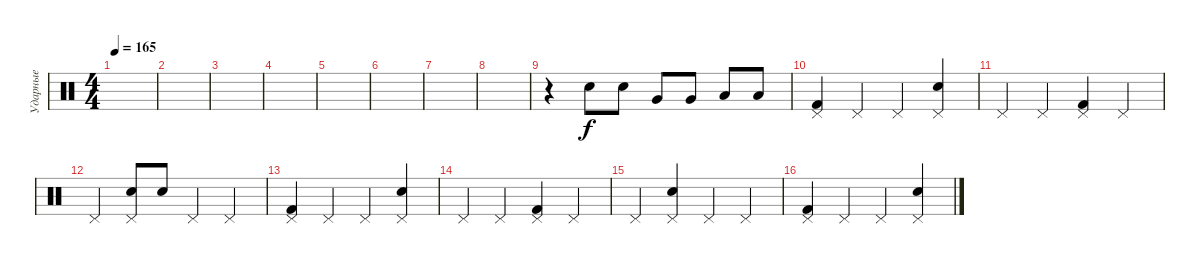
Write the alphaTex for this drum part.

\track ("Ударные" "Ударные") {instrument percussion}
\staff {score}
\articulation defaults
\ts (4 4)
\tempo 165
\clef neutral
\ks c
|
|
|
|
|
|
|
|
r.4 "Snare (hit) 2".8 "Snare (hit) 2".8 "Very Low Tom (hit)".8 "Very Low Tom (hit)".8 "Low Floor Tom (hit)".8 "Low Floor Tom (hit)".8 |
("Pedal Hi-Hat (hit)" "Kick (hit) 2").4 "Pedal Hi-Hat (hit)".4 "Pedal Hi-Hat (hit)".4 ("Pedal Hi-Hat (hit)" "Snare (hit) 2").4 |
"Pedal Hi-Hat (hit)".4 "Pedal Hi-Hat (hit)".4 ("Pedal Hi-Hat (hit)" "Kick (hit) 2").4 "Pedal Hi-Hat (hit)".4 |
"Pedal Hi-Hat (hit)".4 ("Pedal Hi-Hat (hit)" "Snare (hit) 2").8 "Snare (hit) 2".8 "Pedal Hi-Hat (hit)".4 "Pedal Hi-Hat (hit)".4 |
("Pedal Hi-Hat (hit)" "Kick (hit) 2").4 "Pedal Hi-Hat (hit)".4 "Pedal Hi-Hat (hit)".4 ("Pedal Hi-Hat (hit)" "Snare (hit) 2").4 |
"Pedal Hi-Hat (hit)".4 "Pedal Hi-Hat (hit)".4 ("Pedal Hi-Hat (hit)" "Kick (hit) 2").4 "Pedal Hi-Hat (hit)".4 |
"Pedal Hi-Hat (hit)".4 ("Pedal Hi-Hat (hit)" "Snare (hit) 2").4 "Pedal Hi-Hat (hit)".4 "Pedal Hi-Hat (hit)".4 |
("Pedal Hi-Hat (hit)" "Kick (hit) 2").4 "Pedal Hi-Hat (hit)".4 "Pedal Hi-Hat (hit)".4 ("Pedal Hi-Hat (hit)" "Snare (hit) 2").4
